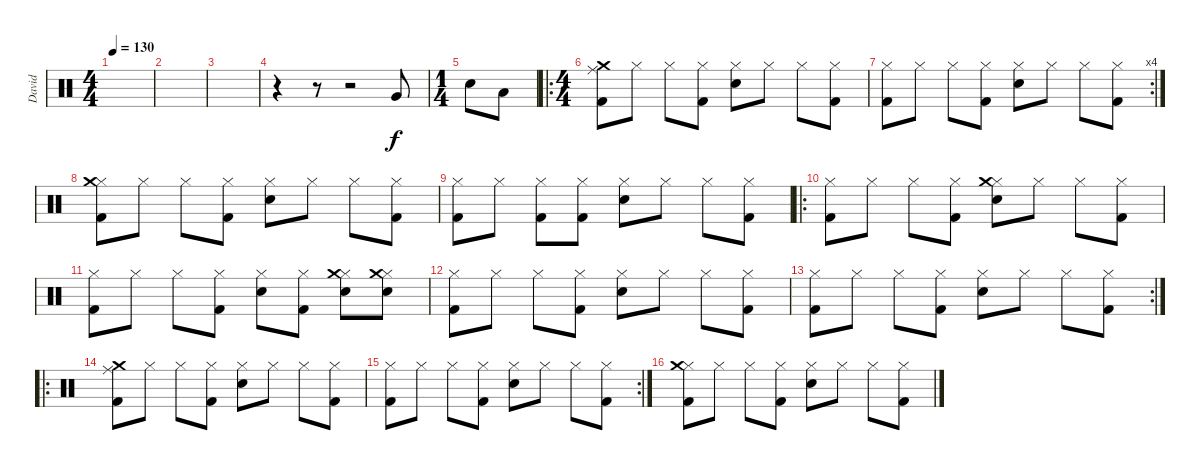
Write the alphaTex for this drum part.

\track ("David" "David") {instrument percussion}
\staff {score}
\articulation defaults
\ts (4 4)
\tempo 130
\clef neutral
\ks c
|
|
|
r.4 r.8 r.2 "Very Low Tom (hit)".8 |
\ts (1 4)
"Electric Snare (hit)".8 "Low Floor Tom (hit)".8 |
\ro
\ts (4 4)
("Crash medium (hit)" "Ride (middle)" "Kick (hit) 2").8 "Hi-Hat (closed)".8 "Hi-Hat (closed)".8 ("Hi-Hat (closed)" "Kick (hit) 2").8 ("Hi-Hat (closed)" "Electric Snare (hit)").8 "Hi-Hat (closed)".8 "Hi-Hat (closed)".8 ("Hi-Hat (closed)" "Kick (hit) 2").8 |
\rc 4
("Hi-Hat (closed)" "Kick (hit) 2").8 "Hi-Hat (closed)".8 "Hi-Hat (closed)".8 ("Hi-Hat (closed)" "Kick (hit) 2").8 ("Hi-Hat (closed)" "Electric Snare (hit)").8 "Hi-Hat (closed)".8 "Hi-Hat (closed)".8 ("Hi-Hat (closed)" "Kick (hit) 2").8 |
("Hi-Hat (closed)" "Crash medium (hit)" "Kick (hit) 2").8 "Hi-Hat (closed)".8 "Hi-Hat (closed)".8 ("Hi-Hat (closed)" "Kick (hit) 2").8 ("Hi-Hat (closed)" "Electric Snare (hit)").8 "Hi-Hat (closed)".8 "Hi-Hat (closed)".8 ("Hi-Hat (closed)" "Kick (hit) 2").8 |
("Hi-Hat (closed)" "Kick (hit) 2").8 "Hi-Hat (closed)".8 ("Hi-Hat (closed)" "Kick (hit) 2").8 ("Hi-Hat (closed)" "Kick (hit) 2").8 ("Hi-Hat (closed)" "Electric Snare (hit)").8 "Hi-Hat (closed)".8 "Hi-Hat (closed)".8 ("Hi-Hat (closed)" "Kick (hit) 2").8 |
\ro
("Hi-Hat (closed)" "Kick (hit) 2").8 "Hi-Hat (closed)".8 "Hi-Hat (closed)".8 ("Hi-Hat (closed)" "Kick (hit) 2").8 ("Hi-Hat (closed)" "Crash medium (hit)" "Electric Snare (hit)").8 "Hi-Hat (closed)".8 "Hi-Hat (closed)".8 ("Hi-Hat (closed)" "Kick (hit) 2").8 |
("Hi-Hat (closed)" "Kick (hit) 2").8 "Hi-Hat (closed)".8 "Hi-Hat (closed)".8 ("Hi-Hat (closed)" "Kick (hit) 2").8 ("Hi-Hat (closed)" "Electric Snare (hit)").8 ("Hi-Hat (closed)" "Kick (hit) 2").8 ("Hi-Hat (closed)" "Crash medium (hit)" "Electric Snare (hit)").8 ("Hi-Hat (closed)" "Crash medium (hit)" "Electric Snare (hit)").8 |
("Hi-Hat (closed)" "Kick (hit) 2").8 "Hi-Hat (closed)".8 "Hi-Hat (closed)".8 ("Hi-Hat (closed)" "Kick (hit) 2").8 ("Hi-Hat (closed)" "Electric Snare (hit)").8 "Hi-Hat (closed)".8 "Hi-Hat (closed)".8 ("Hi-Hat (closed)" "Kick (hit) 2").8 |
\rc 2
("Hi-Hat (closed)" "Kick (hit) 2").8 "Hi-Hat (closed)".8 "Hi-Hat (closed)".8 ("Hi-Hat (closed)" "Kick (hit) 2").8 ("Hi-Hat (closed)" "Electric Snare (hit)").8 "Hi-Hat (closed)".8 "Hi-Hat (closed)".8 ("Hi-Hat (closed)" "Kick (hit) 2").8 |
\ro
("Crash medium (hit)" "Ride (middle)" "Kick (hit) 2").8 "Hi-Hat (closed)".8 "Hi-Hat (closed)".8 ("Hi-Hat (closed)" "Kick (hit) 2").8 ("Hi-Hat (closed)" "Electric Snare (hit)").8 "Hi-Hat (closed)".8 "Hi-Hat (closed)".8 ("Hi-Hat (closed)" "Kick (hit) 2").8 |
\rc 2
("Hi-Hat (closed)" "Kick (hit) 2").8 "Hi-Hat (closed)".8 "Hi-Hat (closed)".8 ("Hi-Hat (closed)" "Kick (hit) 2").8 ("Hi-Hat (closed)" "Electric Snare (hit)").8 "Hi-Hat (closed)".8 "Hi-Hat (closed)".8 ("Hi-Hat (closed)" "Kick (hit) 2").8 |
("Hi-Hat (closed)" "Crash medium (hit)" "Kick (hit) 2").8 "Hi-Hat (closed)".8 "Hi-Hat (closed)".8 ("Hi-Hat (closed)" "Kick (hit) 2").8 ("Hi-Hat (closed)" "Electric Snare (hit)").8 "Hi-Hat (closed)".8 "Hi-Hat (closed)".8 ("Hi-Hat (closed)" "Kick (hit) 2").8
